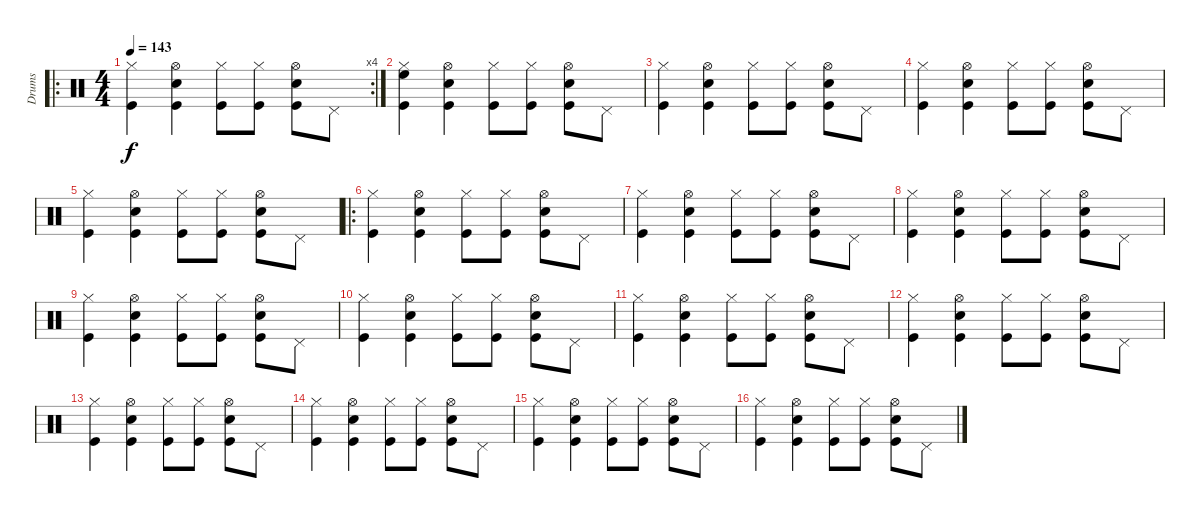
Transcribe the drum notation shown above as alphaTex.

\track ("Drums" "Drums") {instrument percussion}
\staff {score}
\articulation defaults
\ro
\rc 4
\ts (4 4)
\tempo 143
\clef neutral
\ks c
("Hi-Hat (closed)" "Kick (hit)").4{dy f} ("Snare (hit) 2" "Hi-Hat (open)" "Kick (hit)").4 ("Hi-Hat (closed)" "Kick (hit)").8 ("Hi-Hat (closed)" "Kick (hit)").8 ("Snare (hit) 2" "Hi-Hat (open)" "Kick (hit)").8 "Pedal Hi-Hat (hit)".8 |
("Hi-Hat (closed)" "Kick (hit)" "High Floor Tom (hit)").4 ("Snare (hit) 2" "Hi-Hat (open)" "Kick (hit)").4 ("Hi-Hat (closed)" "Kick (hit)").8 ("Hi-Hat (closed)" "Kick (hit)").8 ("Snare (hit) 2" "Hi-Hat (open)" "Kick (hit)").8 "Pedal Hi-Hat (hit)".8 |
("Hi-Hat (closed)" "Kick (hit)").4 ("Snare (hit) 2" "Hi-Hat (open)" "Kick (hit)").4 ("Hi-Hat (closed)" "Kick (hit)").8 ("Hi-Hat (closed)" "Kick (hit)").8 ("Snare (hit) 2" "Hi-Hat (open)" "Kick (hit)").8 "Pedal Hi-Hat (hit)".8 |
("Hi-Hat (closed)" "Kick (hit)").4 ("Snare (hit) 2" "Hi-Hat (open)" "Kick (hit)").4 ("Hi-Hat (closed)" "Kick (hit)").8 ("Hi-Hat (closed)" "Kick (hit)").8 ("Snare (hit) 2" "Hi-Hat (open)" "Kick (hit)").8 "Pedal Hi-Hat (hit)".8 |
("Hi-Hat (closed)" "Kick (hit)").4 ("Snare (hit) 2" "Hi-Hat (open)" "Kick (hit)").4 ("Hi-Hat (closed)" "Kick (hit)").8 ("Hi-Hat (closed)" "Kick (hit)").8 ("Snare (hit) 2" "Hi-Hat (open)" "Kick (hit)").8 "Pedal Hi-Hat (hit)".8 |
\ro
("Hi-Hat (closed)" "Kick (hit)").4 ("Snare (hit) 2" "Hi-Hat (open)" "Kick (hit)").4 ("Hi-Hat (closed)" "Kick (hit)").8 ("Hi-Hat (closed)" "Kick (hit)").8 ("Snare (hit) 2" "Hi-Hat (open)" "Kick (hit)").8 "Pedal Hi-Hat (hit)".8 |
("Hi-Hat (closed)" "Kick (hit)").4 ("Snare (hit) 2" "Hi-Hat (open)" "Kick (hit)").4 ("Hi-Hat (closed)" "Kick (hit)").8 ("Hi-Hat (closed)" "Kick (hit)").8 ("Snare (hit) 2" "Hi-Hat (open)" "Kick (hit)").8 "Pedal Hi-Hat (hit)".8 |
("Hi-Hat (closed)" "Kick (hit)").4 ("Snare (hit) 2" "Hi-Hat (open)" "Kick (hit)").4 ("Hi-Hat (closed)" "Kick (hit)").8 ("Hi-Hat (closed)" "Kick (hit)").8 ("Snare (hit) 2" "Hi-Hat (open)" "Kick (hit)").8 "Pedal Hi-Hat (hit)".8 |
("Hi-Hat (closed)" "Kick (hit)").4 ("Snare (hit) 2" "Hi-Hat (open)" "Kick (hit)").4 ("Hi-Hat (closed)" "Kick (hit)").8 ("Hi-Hat (closed)" "Kick (hit)").8 ("Snare (hit) 2" "Hi-Hat (open)" "Kick (hit)").8 "Pedal Hi-Hat (hit)".8 |
("Hi-Hat (closed)" "Kick (hit)").4 ("Snare (hit) 2" "Hi-Hat (open)" "Kick (hit)").4 ("Hi-Hat (closed)" "Kick (hit)").8 ("Hi-Hat (closed)" "Kick (hit)").8 ("Snare (hit) 2" "Hi-Hat (open)" "Kick (hit)").8 "Pedal Hi-Hat (hit)".8 |
("Hi-Hat (closed)" "Kick (hit)").4 ("Snare (hit) 2" "Hi-Hat (open)" "Kick (hit)").4 ("Hi-Hat (closed)" "Kick (hit)").8 ("Hi-Hat (closed)" "Kick (hit)").8 ("Snare (hit) 2" "Hi-Hat (open)" "Kick (hit)").8 "Pedal Hi-Hat (hit)".8 |
("Hi-Hat (closed)" "Kick (hit)").4 ("Snare (hit) 2" "Hi-Hat (open)" "Kick (hit)").4 ("Hi-Hat (closed)" "Kick (hit)").8 ("Hi-Hat (closed)" "Kick (hit)").8 ("Snare (hit) 2" "Hi-Hat (open)" "Kick (hit)").8 "Pedal Hi-Hat (hit)".8 |
("Hi-Hat (closed)" "Kick (hit)").4 ("Snare (hit) 2" "Hi-Hat (open)" "Kick (hit)").4 ("Hi-Hat (closed)" "Kick (hit)").8 ("Hi-Hat (closed)" "Kick (hit)").8 ("Snare (hit) 2" "Hi-Hat (open)" "Kick (hit)").8 "Pedal Hi-Hat (hit)".8 |
("Hi-Hat (closed)" "Kick (hit)").4 ("Snare (hit) 2" "Hi-Hat (open)" "Kick (hit)").4 ("Hi-Hat (closed)" "Kick (hit)").8 ("Hi-Hat (closed)" "Kick (hit)").8 ("Snare (hit) 2" "Hi-Hat (open)" "Kick (hit)").8 "Pedal Hi-Hat (hit)".8 |
("Hi-Hat (closed)" "Kick (hit)").4 ("Snare (hit) 2" "Hi-Hat (open)" "Kick (hit)").4 ("Hi-Hat (closed)" "Kick (hit)").8 ("Hi-Hat (closed)" "Kick (hit)").8 ("Snare (hit) 2" "Hi-Hat (open)" "Kick (hit)").8 "Pedal Hi-Hat (hit)".8 |
("Hi-Hat (closed)" "Kick (hit)").4 ("Snare (hit) 2" "Hi-Hat (open)" "Kick (hit)").4 ("Hi-Hat (closed)" "Kick (hit)").8 ("Hi-Hat (closed)" "Kick (hit)").8 ("Snare (hit) 2" "Hi-Hat (open)" "Kick (hit)").8 "Pedal Hi-Hat (hit)".8
